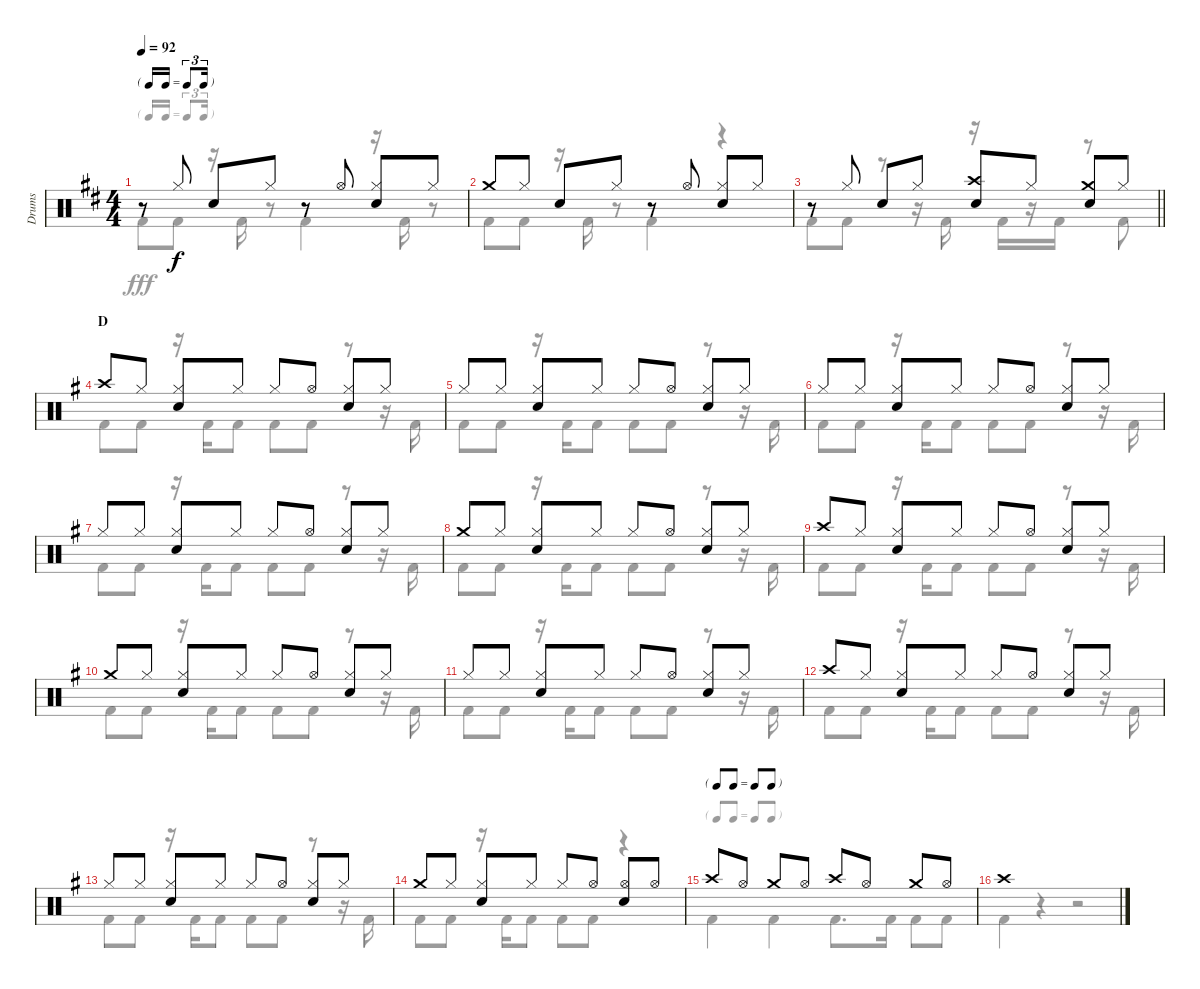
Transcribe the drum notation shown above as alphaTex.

\track ("Drums" "Drums") {instrument percussion}
\staff {score}
\articulation defaults
\voice
\ts (4 4)
\tf triplet16th
\tempo 92
\clef neutral
\ks d
r.8{dy f} "Hi-Hat (closed)".8 "Snare (hit) 2".8 "Hi-Hat (closed)".8 r.8 "Hi-Hat (open)".8 ("Hi-Hat (closed)" "Snare (hit) 2").8 "Hi-Hat (closed)".8 |
"Crash medium (hit)".8 "Hi-Hat (closed)".8 "Snare (hit) 2".8 "Hi-Hat (closed)".8 r.8 "Hi-Hat (open)".8 ("Hi-Hat (closed)" "Snare (hit) 2").8 "Hi-Hat (closed)".8 |
\barLineRight lightlight
r.8 "Hi-Hat (closed)".8 "Snare (hit) 2".8 "Hi-Hat (closed)".8 ("Crash high (hit)" "Snare (hit) 2").8 "Hi-Hat (closed)".8 ("Crash medium (hit)" "Snare (hit) 2").8 "Hi-Hat (closed)".8 |
\section ("" "D")
\ks g "Crash high (hit)".8 "Hi-Hat (closed)".8
("Hi-Hat (closed)" "Snare (hit) 2").8 "Hi-Hat (closed)".8 "Hi-Hat (closed)".8 "Hi-Hat (open)".8 ("Hi-Hat (closed)" "Snare (hit) 2").8 "Hi-Hat (closed)".8 |
"Hi-Hat (closed)".8 "Hi-Hat (closed)".8 ("Hi-Hat (closed)" "Snare (hit) 2").8 "Hi-Hat (closed)".8 "Hi-Hat (closed)".8 "Hi-Hat (open)".8 ("Hi-Hat (closed)" "Snare (hit) 2").8 "Hi-Hat (closed)".8 |
"Hi-Hat (closed)".8 "Hi-Hat (closed)".8 ("Hi-Hat (closed)" "Snare (hit) 2").8 "Hi-Hat (closed)".8 "Hi-Hat (closed)".8 "Hi-Hat (open)".8 ("Hi-Hat (closed)" "Snare (hit) 2").8 "Hi-Hat (closed)".8 |
"Hi-Hat (closed)".8 "Hi-Hat (closed)".8 ("Hi-Hat (closed)" "Snare (hit) 2").8 "Hi-Hat (closed)".8 "Hi-Hat (closed)".8 "Hi-Hat (open)".8 ("Hi-Hat (closed)" "Snare (hit) 2").8 "Hi-Hat (closed)".8 |
"Crash medium (hit)".8 "Hi-Hat (closed)".8 ("Hi-Hat (closed)" "Snare (hit) 2").8 "Hi-Hat (closed)".8 "Hi-Hat (closed)".8 "Hi-Hat (open)".8 ("Hi-Hat (closed)" "Snare (hit) 2").8 "Hi-Hat (closed)".8 |
"Crash high (hit)".8 "Hi-Hat (closed)".8 ("Hi-Hat (closed)" "Snare (hit) 2").8 "Hi-Hat (closed)".8 "Hi-Hat (closed)".8 "Hi-Hat (open)".8 ("Hi-Hat (closed)" "Snare (hit) 2").8 "Hi-Hat (closed)".8 |
"Crash medium (hit)".8 "Hi-Hat (closed)".8 ("Hi-Hat (closed)" "Snare (hit) 2").8 "Hi-Hat (closed)".8 "Hi-Hat (closed)".8 "Hi-Hat (open)".8 ("Hi-Hat (closed)" "Snare (hit) 2").8 "Hi-Hat (closed)".8 |
"Hi-Hat (closed)".8 "Hi-Hat (closed)".8 ("Hi-Hat (closed)" "Snare (hit) 2").8 "Hi-Hat (closed)".8 "Hi-Hat (closed)".8 "Hi-Hat (open)".8 ("Hi-Hat (closed)" "Snare (hit) 2").8 "Hi-Hat (closed)".8 |
"Crash high (hit)".8 "Hi-Hat (closed)".8 ("Hi-Hat (closed)" "Snare (hit) 2").8 "Hi-Hat (closed)".8 "Hi-Hat (closed)".8 "Hi-Hat (open)".8 ("Hi-Hat (closed)" "Snare (hit) 2").8 "Hi-Hat (closed)".8 |
"Hi-Hat (closed)".8 "Hi-Hat (closed)".8 ("Hi-Hat (closed)" "Snare (hit) 2").8 "Hi-Hat (closed)".8 "Hi-Hat (closed)".8 "Hi-Hat (open)".8 ("Hi-Hat (closed)" "Snare (hit) 2").8 "Hi-Hat (closed)".8 |
"Crash medium (hit)".8 "Hi-Hat (closed)".8 ("Hi-Hat (closed)" "Snare (hit) 2").8 "Hi-Hat (closed)".8 "Hi-Hat (closed)".8 "Hi-Hat (open)".8 ("Hi-Hat (open)" "Snare (hit) 2").8 "Hi-Hat (open)".8 |
\tf none "Crash high (hit)".8 "Hi-Hat (open)".8 "Crash medium (hit)".8 "Hi-Hat (open)".8 "Crash high (hit)".8 "Hi-Hat (open)".8 "Crash medium (hit)".8 "Hi-Hat (open)".8
|
"Crash high (hit)".1
\voice
\clef neutral
\ottava regular
\simile none
\ks d "Kick (hit) 2".8{dy fff} "Kick (hit) 2".8
r.16 "Kick (hit) 2".16 r.8 "Kick (hit) 2".4 r.16 "Kick (hit) 2".16 r.8 |
"Kick (hit) 2".8 "Kick (hit) 2".8 r.16 "Kick (hit) 2".16 r.8 "Kick (hit) 2".4 r.4 |
\barLineRight lightlight "Kick (hit) 2".8 "Kick (hit) 2".8
r.8 r.16 "Kick (hit) 2".16 r.16 "Kick (hit) 2".16 r.16 "Kick (hit) 2".16 r.8 "Kick (hit) 2".8 |
\ks g "Kick (hit) 2".8 "Kick (hit) 2".8
r.16 "Kick (hit) 2".16 "Kick (hit) 2".8 "Kick (hit) 2".8 "Kick (hit) 2".8 r.8 r.16 "Kick (hit) 2".16 |
"Kick (hit) 2".8 "Kick (hit) 2".8 r.16 "Kick (hit) 2".16 "Kick (hit) 2".8 "Kick (hit) 2".8 "Kick (hit) 2".8 r.8 r.16 "Kick (hit) 2".16 |
"Kick (hit) 2".8 "Kick (hit) 2".8 r.16 "Kick (hit) 2".16 "Kick (hit) 2".8 "Kick (hit) 2".8 "Kick (hit) 2".8 r.8 r.16 "Kick (hit) 2".16 |
"Kick (hit) 2".8 "Kick (hit) 2".8 r.16 "Kick (hit) 2".16 "Kick (hit) 2".8 "Kick (hit) 2".8 "Kick (hit) 2".8 r.8 r.16 "Kick (hit) 2".16 |
"Kick (hit) 2".8 "Kick (hit) 2".8 r.16 "Kick (hit) 2".16 "Kick (hit) 2".8 "Kick (hit) 2".8 "Kick (hit) 2".8 r.8 r.16 "Kick (hit) 2".16 |
"Kick (hit) 2".8 "Kick (hit) 2".8 r.16 "Kick (hit) 2".16 "Kick (hit) 2".8 "Kick (hit) 2".8 "Kick (hit) 2".8 r.8 r.16 "Kick (hit) 2".16 |
"Kick (hit) 2".8 "Kick (hit) 2".8 r.16 "Kick (hit) 2".16 "Kick (hit) 2".8 "Kick (hit) 2".8 "Kick (hit) 2".8 r.8 r.16 "Kick (hit) 2".16 |
"Kick (hit) 2".8 "Kick (hit) 2".8 r.16 "Kick (hit) 2".16 "Kick (hit) 2".8 "Kick (hit) 2".8 "Kick (hit) 2".8 r.8 r.16 "Kick (hit) 2".16 |
"Kick (hit) 2".8 "Kick (hit) 2".8 r.16 "Kick (hit) 2".16 "Kick (hit) 2".8 "Kick (hit) 2".8 "Kick (hit) 2".8 r.8 r.16 "Kick (hit) 2".16 |
"Kick (hit) 2".8 "Kick (hit) 2".8 r.16 "Kick (hit) 2".16 "Kick (hit) 2".8 "Kick (hit) 2".8 "Kick (hit) 2".8 r.8 r.16 "Kick (hit) 2".16 |
"Kick (hit) 2".8 "Kick (hit) 2".8 r.16 "Kick (hit) 2".16 "Kick (hit) 2".8 "Kick (hit) 2".8 "Kick (hit) 2".8 r.4 |
"Kick (hit) 2".4 "Kick (hit) 2".4 "Kick (hit) 2".8{d} "Kick (hit) 2".16 "Kick (hit) 2".8 "Kick (hit) 2".8 |
"Kick (hit) 2".4 r.4 r.2
